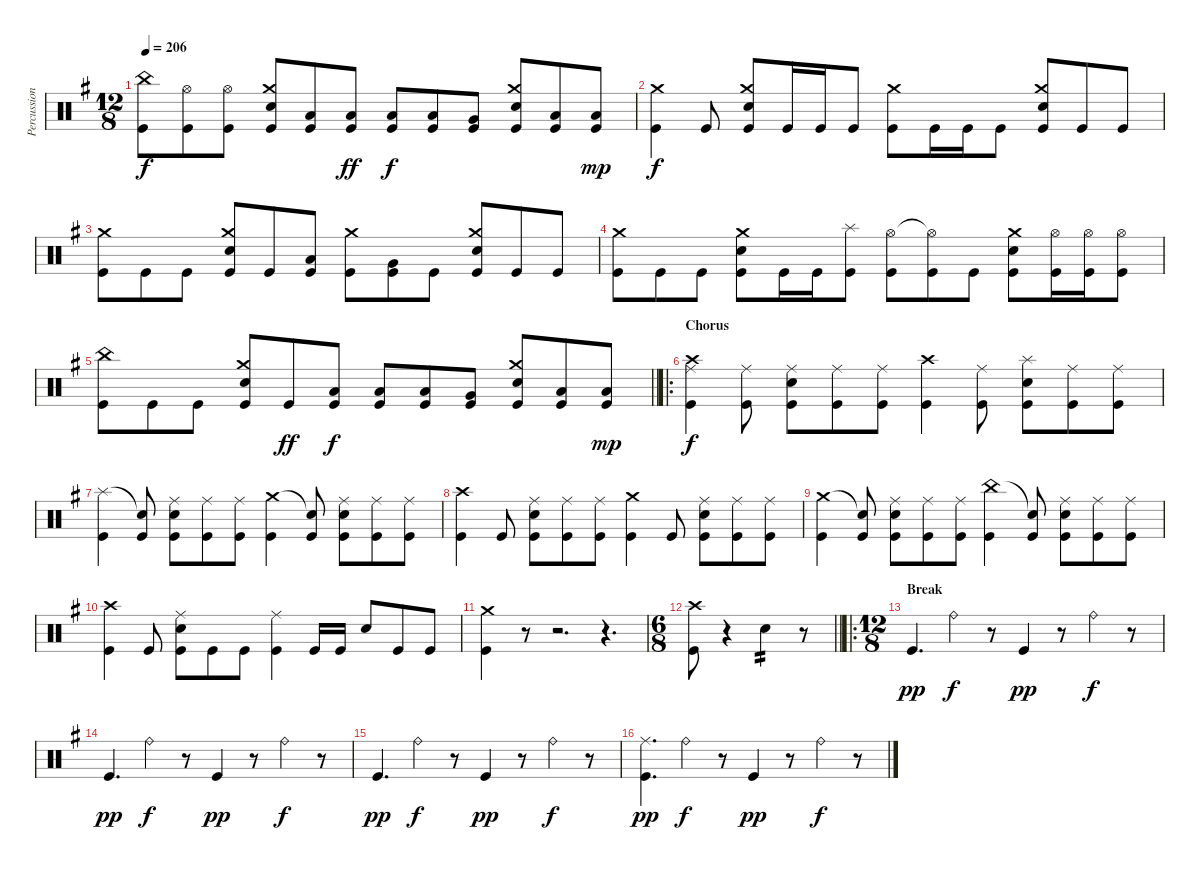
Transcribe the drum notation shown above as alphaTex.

\track ("Percussion" "Percussion") {instrument percussion}
\staff {score}
\articulation defaults
\ts (12 8)
\tempo 206
\clef neutral
\ks g
("China (hit)" "Kick (hit)").8{dy f} ("Hi-Hat (open)" "Kick (hit)").8 ("Hi-Hat (open)" "Kick (hit)").8 ("Crash medium (hit)" "Electric Snare (hit)" "Kick (hit)").8 ("Low Tom (hit)" "Kick (hit)").8 ("Low Tom (hit)" "Kick (hit)").8{dy ff} ("Low Tom (hit)" "Kick (hit)").8{dy f} ("Low Tom (hit)" "Kick (hit)").8 ("Very Low Tom (hit)" "Kick (hit)").8 ("Crash medium (hit)" "Electric Snare (hit)" "Kick (hit)").8 ("Low Floor Tom (hit)" "Kick (hit)").8 ("Low Floor Tom (hit)" "Kick (hit)").8{dy mp} |
("Crash medium (hit)" "Kick (hit)").4{dy f} "Kick (hit)".8 ("Crash medium (hit)" "Electric Snare (hit)" "Kick (hit)").8 "Kick (hit)".16 "Kick (hit)".16 "Kick (hit)".8 ("Crash medium (hit)" "Kick (hit)").8 "Kick (hit)".16 "Kick (hit)".16 "Kick (hit)".8 ("Crash medium (hit)" "Electric Snare (hit)" "Kick (hit)").8 "Kick (hit)".8 "Kick (hit)".8 |
("Crash medium (hit)" "Kick (hit)").8 "Kick (hit)".8 "Kick (hit)".8 ("Electric Snare (hit)" "Crash medium (hit)" "Kick (hit)").8 "Kick (hit)".8 ("Low Tom (hit)" "Kick (hit)").8 ("Crash medium (hit)" "Kick (hit)").8 ("Very Low Tom (hit)" "Kick (hit)").8 "Kick (hit)".8 ("Electric Snare (hit)" "Crash medium (hit)" "Kick (hit)").8 "Kick (hit)".8 "Kick (hit)".8 |
("Crash medium (hit)" "Kick (hit)").8 "Kick (hit)".8 "Kick (hit)".8 ("Crash medium (hit)" "Electric Snare (hit)" "Kick (hit)").8 "Kick (hit)".16 "Kick (hit)".16 ("Splash (hit)" "Kick (hit)").8 ("Hi-Hat (open)" "Kick (hit)").8 ("Hi-Hat (open)"{t} "Kick (hit)").8 "Kick (hit)".8 ("Crash medium (hit)" "Electric Snare (hit)" "Kick (hit)").8 ("Hi-Hat (open)" "Kick (hit)").16 ("Hi-Hat (open)" "Kick (hit)").16 ("Hi-Hat (open)" "Kick (hit)").8 |
\barLineRight lightlight
("China (hit)" "Kick (hit)").8 "Kick (hit)".8 "Kick (hit)".8 ("Crash medium (hit)" "Electric Snare (hit)" "Kick (hit)").8 "Kick (hit)".8{dy ff} ("Low Tom (hit)" "Kick (hit)").8{dy f} ("Low Tom (hit)" "Kick (hit)").8 ("Low Tom (hit)" "Kick (hit)").8 ("Very Low Tom (hit)" "Kick (hit)").8 ("Crash medium (hit)" "Electric Snare (hit)" "Kick (hit)").8 ("Low Floor Tom (hit)" "Kick (hit)").8 ("Low Floor Tom (hit)" "Kick (hit)").8{dy mp} |
\ro
\section ("" "Chorus")
("Crash high (hit)" "Ride (middle)" "Kick (hit)").4{dy f} ("Ride (middle)" "Kick (hit)").8 ("Ride (middle)" "Electric Snare (hit)" "Kick (hit)").8 ("Ride (middle)" "Kick (hit)").8 ("Ride (middle)" "Kick (hit)").8 ("Crash high (hit)" "Kick (hit)").4 ("Ride (middle)" "Kick (hit)").8 ("Splash (hit)" "Electric Snare (hit)" "Kick (hit)").8 ("Ride (middle)" "Kick (hit)").8 ("Ride (middle)" "Kick (hit)").8 |
("Splash (hit)" "Kick (hit)").4 ("Snare (hit)"{t} "Kick (hit)").8 ("Ride (middle)" "Electric Snare (hit)" "Kick (hit)").8 ("Ride (middle)" "Kick (hit)").8 ("Ride (middle)" "Kick (hit)").8 ("Crash medium (hit)" "Kick (hit)").4 ("Snare (hit)"{t} "Kick (hit)").8 ("Electric Snare (hit)" "Ride (middle)" "Kick (hit)").8 ("Ride (middle)" "Kick (hit)").8 ("Ride (middle)" "Kick (hit)").8 |
("Crash high (hit)" "Kick (hit)").4 "Kick (hit)".8 ("Ride (middle)" "Electric Snare (hit)" "Kick (hit)").8 ("Ride (middle)" "Kick (hit)").8 ("Ride (middle)" "Kick (hit)").8 ("Crash medium (hit)" "Kick (hit)").4 "Kick (hit)".8 ("Ride (middle)" "Electric Snare (hit)" "Kick (hit)").8 ("Ride (middle)" "Kick (hit)").8 ("Ride (middle)" "Kick (hit)").8 |
("Crash medium (hit)" "Kick (hit)").4 ("Snare (hit)"{t} "Kick (hit)").8 ("Electric Snare (hit)" "Ride (middle)" "Kick (hit)").8 ("Ride (middle)" "Kick (hit)").8 ("Ride (middle)" "Kick (hit)").8 ("China (hit)" "Kick (hit)").4 ("Snare (hit)"{t} "Kick (hit)").8 ("Electric Snare (hit)" "Ride (middle)" "Kick (hit)").8 ("Ride (middle)" "Kick (hit)").8 ("Ride (middle)" "Kick (hit)").8 |
("Crash high (hit)" "Kick (hit)").4 "Kick (hit)".8 ("Ride (middle)" "Electric Snare (hit)" "Kick (hit)").8 "Kick (hit)".8 "Kick (hit)".8 ("Ride (middle)" "Kick (hit)").4 "Kick (hit)".16 "Kick (hit)".16 "Electric Snare (hit)".8 "Kick (hit)".8 "Kick (hit)".8 |
("Crash medium (hit)" "Kick (hit)").4 r.8 r.2{d} r.4{d} |
\ts (6 8)
\barLineRight lightlight
("Crash high (hit)" "Kick (hit)").8 r.4 "Electric Snare (hit)".4{tp 2} r.8 |
\ro
\ts (12 8)
\section ("" "Break")
"Kick (hit)".4{d dy pp} "Ride (bell)".4{dy f} r.8 "Kick (hit)".4{dy pp} r.8 "Ride (bell)".4{dy f} r.8 |
"Kick (hit)".4{d dy pp} "Ride (bell)".4{dy f} r.8 "Kick (hit)".4{dy pp} r.8 "Ride (bell)".4{dy f} r.8 |
"Kick (hit)".4{d dy pp} "Ride (bell)".4{dy f} r.8 "Kick (hit)".4{dy pp} r.8 "Ride (bell)".4{dy f} r.8 |
("Ride (middle)" "Kick (hit)").4{d dy pp} "Ride (bell)".4{dy f} r.8 "Kick (hit)".4{dy pp} r.8 "Ride (bell)".4{dy f} r.8
